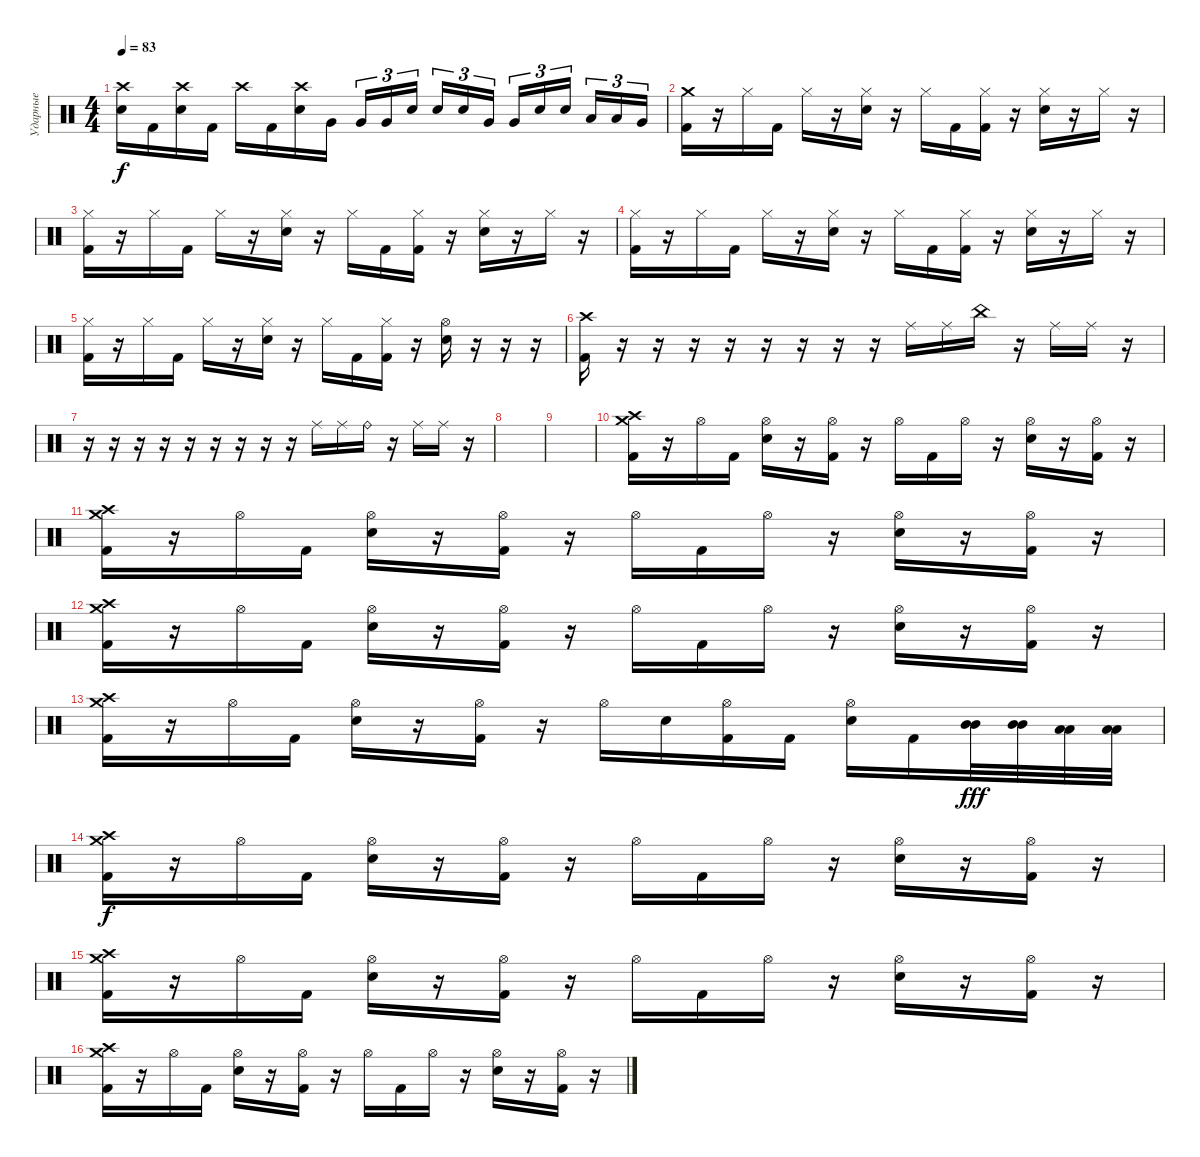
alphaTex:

\track ("Ударные" "Ударные") {instrument percussion}
\staff {score}
\articulation defaults
\ts (4 4)
\tempo 83
\clef neutral
\ks c
("Crash high (hit)" "Electric Snare (hit)").16{dy f} "Kick (hit) 2".16 ("Crash high (hit)" "Electric Snare (hit)").16 "Kick (hit) 2".16 "Crash high (hit)".16 "Kick (hit) 2".16 ("Crash high (hit)" "Electric Snare (hit)").16 "Very Low Tom (hit)".16 "Very Low Tom (hit)".16{tu (3 2)} "Very Low Tom (hit)".16{tu (3 2)} "Electric Snare (hit)".16{tu (3 2) beam splitsecondary} "Electric Snare (hit)".16{tu (3 2)} "Electric Snare (hit)".16{tu (3 2)} "Very Low Tom (hit)".16{tu (3 2)} "Very Low Tom (hit)".16{tu (3 2)} "Electric Snare (hit)".16{tu (3 2)} "Electric Snare (hit)".16{tu (3 2) beam splitsecondary} "Low Tom (hit)".16{tu (3 2)} "Low Tom (hit)".16{tu (3 2)} "Very Low Tom (hit)".16{tu (3 2)} |
("Crash medium (hit)" "Kick (hit) 2").16 r.16 "Hi-Hat (closed)".16 "Kick (hit) 2".16 "Hi-Hat (closed)".16 r.16 ("Hi-Hat (closed)" "Electric Snare (hit)").16 r.16 "Hi-Hat (closed)".16 "Kick (hit) 2".16 ("Hi-Hat (closed)" "Kick (hit) 2").16 r.16 ("Hi-Hat (closed)" "Electric Snare (hit)").16 r.16 "Hi-Hat (closed)".16 r.16 |
("Hi-Hat (closed)" "Kick (hit) 2").16 r.16 "Hi-Hat (closed)".16 "Kick (hit) 2".16 "Hi-Hat (closed)".16 r.16 ("Hi-Hat (closed)" "Electric Snare (hit)").16 r.16 "Hi-Hat (closed)".16 "Kick (hit) 2".16 ("Hi-Hat (closed)" "Kick (hit) 2").16 r.16 ("Hi-Hat (closed)" "Electric Snare (hit)").16 r.16 "Hi-Hat (closed)".16 r.16 |
("Hi-Hat (closed)" "Kick (hit) 2").16 r.16 "Hi-Hat (closed)".16 "Kick (hit) 2".16 "Hi-Hat (closed)".16 r.16 ("Hi-Hat (closed)" "Electric Snare (hit)").16 r.16 "Hi-Hat (closed)".16 "Kick (hit) 2".16 ("Hi-Hat (closed)" "Kick (hit) 2").16 r.16 ("Hi-Hat (closed)" "Electric Snare (hit)").16 r.16 "Hi-Hat (closed)".16 r.16 |
("Hi-Hat (closed)" "Kick (hit) 2").16 r.16 "Hi-Hat (closed)".16 "Kick (hit) 2".16 "Hi-Hat (closed)".16 r.16 ("Hi-Hat (closed)" "Electric Snare (hit)").16 r.16 "Hi-Hat (closed)".16 "Kick (hit) 2".16 ("Hi-Hat (closed)" "Kick (hit) 2").16 r.16 ("Hi-Hat (open)" "Electric Snare (hit)").16 r.16 r.16 r.16 |
("Crash high (hit)" "Kick (hit) 2").16 r.16 r.16 r.16 r.16 r.16 r.16 r.16 r.16 "Ride (middle)".16 "Ride (middle)".16 "China (hit)".16 r.16 "Ride (middle)".16 "Ride (middle)".16 r.16 |
r.16 r.16 r.16 r.16 r.16 r.16 r.16 r.16 r.16 "Ride (middle)".16 "Ride (middle)".16 "Ride (bell)".16 r.16 "Ride (middle)".16 "Ride (middle)".16 r.16 |
|
|
("Crash medium (hit)" "Crash high (hit)" "Kick (hit) 2").16 r.16 "Hi-Hat (open)".16 "Kick (hit) 2".16 ("Hi-Hat (open)" "Electric Snare (hit)").16 r.16 ("Hi-Hat (open)" "Kick (hit) 2").16 r.16 "Hi-Hat (open)".16 "Kick (hit) 2".16 "Hi-Hat (open)".16 r.16 ("Hi-Hat (open)" "Electric Snare (hit)").16 r.16 ("Hi-Hat (open)" "Kick (hit) 2").16 r.16 |
("Crash medium (hit)" "Crash high (hit)" "Kick (hit) 2").16 r.16 "Hi-Hat (open)".16 "Kick (hit) 2".16 ("Hi-Hat (open)" "Electric Snare (hit)").16 r.16 ("Hi-Hat (open)" "Kick (hit) 2").16 r.16 "Hi-Hat (open)".16 "Kick (hit) 2".16 "Hi-Hat (open)".16 r.16 ("Hi-Hat (open)" "Electric Snare (hit)").16 r.16 ("Hi-Hat (open)" "Kick (hit) 2").16 r.16 |
("Crash medium (hit)" "Crash high (hit)" "Kick (hit) 2").16 r.16 "Hi-Hat (open)".16 "Kick (hit) 2".16 ("Hi-Hat (open)" "Electric Snare (hit)").16 r.16 ("Hi-Hat (open)" "Kick (hit) 2").16 r.16 "Hi-Hat (open)".16 "Kick (hit) 2".16 "Hi-Hat (open)".16 r.16 ("Hi-Hat (open)" "Electric Snare (hit)").16 r.16 ("Hi-Hat (open)" "Kick (hit) 2").16 r.16 |
("Crash medium (hit)" "Crash high (hit)" "Kick (hit) 2").16 r.16 "Hi-Hat (open)".16 "Kick (hit) 2".16 ("Hi-Hat (open)" "Electric Snare (hit)").16 r.16 ("Hi-Hat (open)" "Kick (hit) 2").16 r.16 "Hi-Hat (open)".16 "Electric Snare (hit)".16 ("Hi-Hat (open)" "Kick (hit) 2").16 "Kick (hit) 2".16 ("Hi-Hat (open)" "Electric Snare (hit)").16 "Kick (hit) 2".16 ("Mid Tom (hit)" "Mid Tom (hit)").32{dy fff} ("Mid Tom (hit)" "Mid Tom (hit)").32 ("Low Tom (hit)" "Low Tom (hit)").32 ("Low Tom (hit)" "Low Tom (hit)").32 |
("Crash medium (hit)" "Crash high (hit)" "Kick (hit) 2").16{dy f} r.16 "Hi-Hat (open)".16 "Kick (hit) 2".16 ("Hi-Hat (open)" "Electric Snare (hit)").16 r.16 ("Hi-Hat (open)" "Kick (hit) 2").16 r.16 "Hi-Hat (open)".16 "Kick (hit) 2".16 "Hi-Hat (open)".16 r.16 ("Hi-Hat (open)" "Electric Snare (hit)").16 r.16 ("Hi-Hat (open)" "Kick (hit) 2").16 r.16 |
("Crash medium (hit)" "Crash high (hit)" "Kick (hit) 2").16 r.16 "Hi-Hat (open)".16 "Kick (hit) 2".16 ("Hi-Hat (open)" "Electric Snare (hit)").16 r.16 ("Hi-Hat (open)" "Kick (hit) 2").16 r.16 "Hi-Hat (open)".16 "Kick (hit) 2".16 "Hi-Hat (open)".16 r.16 ("Hi-Hat (open)" "Electric Snare (hit)").16 r.16 ("Hi-Hat (open)" "Kick (hit) 2").16 r.16 |
("Crash medium (hit)" "Crash high (hit)" "Kick (hit) 2").16 r.16 "Hi-Hat (open)".16 "Kick (hit) 2".16 ("Hi-Hat (open)" "Electric Snare (hit)").16 r.16 ("Hi-Hat (open)" "Kick (hit) 2").16 r.16 "Hi-Hat (open)".16 "Kick (hit) 2".16 "Hi-Hat (open)".16 r.16 ("Hi-Hat (open)" "Electric Snare (hit)").16 r.16 ("Hi-Hat (open)" "Kick (hit) 2").16 r.16
